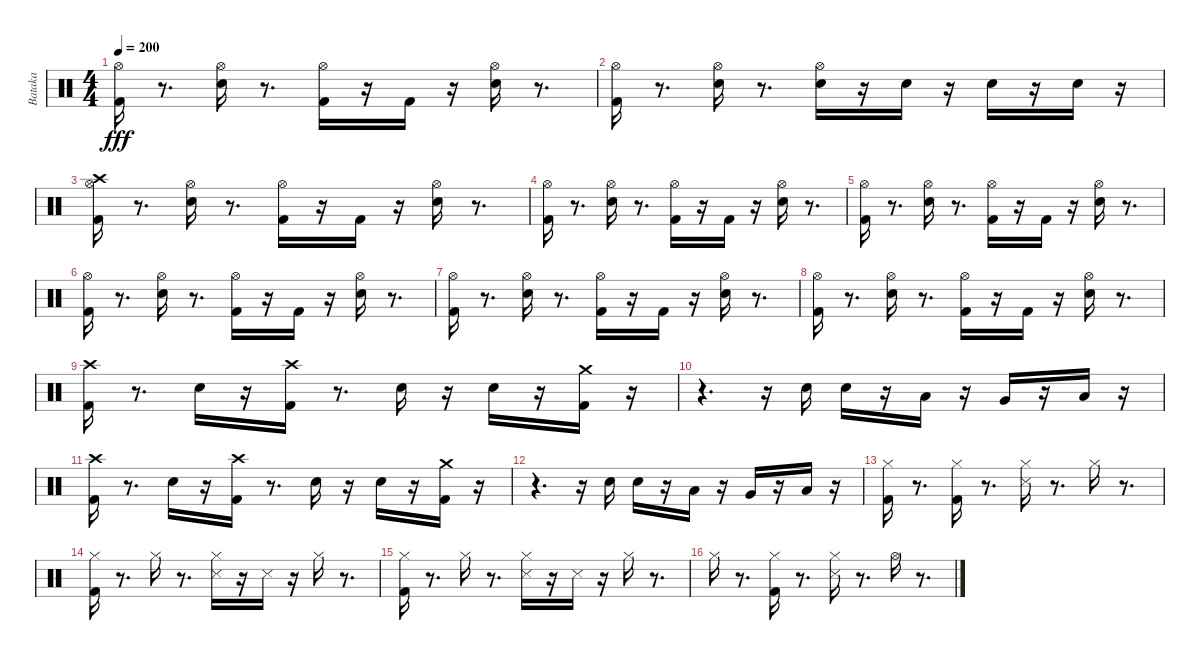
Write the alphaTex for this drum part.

\track ("Bataka" "Bataka") {instrument percussion}
\staff {score}
\articulation defaults
\ts (4 4)
\tempo 200
\clef neutral
\ks c
("Kick (hit) 2" "Hi-Hat (open)").16{dy fff} r.8{d} ("Electric Snare (hit)" "Hi-Hat (open)").16 r.8{d} ("Kick (hit) 2" "Hi-Hat (open)").16 r.16 "Kick (hit) 2".16 r.16 ("Electric Snare (hit)" "Hi-Hat (open)").16 r.8{d} |
("Kick (hit) 2" "Hi-Hat (open)").16 r.8{d} ("Electric Snare (hit)" "Hi-Hat (open)").16 r.8{d} ("Hi-Hat (open)" "Electric Snare (hit)").16 r.16 "Electric Snare (hit)".16 r.16 "Electric Snare (hit)".16 r.16 "Electric Snare (hit)".16 r.16 |
("Kick (hit) 2" "Hi-Hat (open)" "Crash high (hit)").16 r.8{d} ("Electric Snare (hit)" "Hi-Hat (open)").16 r.8{d} ("Kick (hit) 2" "Hi-Hat (open)").16 r.16 "Kick (hit) 2".16 r.16 ("Electric Snare (hit)" "Hi-Hat (open)").16 r.8{d} |
("Kick (hit) 2" "Hi-Hat (open)").16 r.8{d} ("Electric Snare (hit)" "Hi-Hat (open)").16 r.8{d} ("Kick (hit) 2" "Hi-Hat (open)").16 r.16 "Kick (hit) 2".16 r.16 ("Electric Snare (hit)" "Hi-Hat (open)").16 r.8{d} |
("Kick (hit) 2" "Hi-Hat (open)").16 r.8{d} ("Electric Snare (hit)" "Hi-Hat (open)").16 r.8{d} ("Kick (hit) 2" "Hi-Hat (open)").16 r.16 "Kick (hit) 2".16 r.16 ("Electric Snare (hit)" "Hi-Hat (open)").16 r.8{d} |
("Kick (hit) 2" "Hi-Hat (open)").16 r.8{d} ("Electric Snare (hit)" "Hi-Hat (open)").16 r.8{d} ("Kick (hit) 2" "Hi-Hat (open)").16 r.16 "Kick (hit) 2".16 r.16 ("Electric Snare (hit)" "Hi-Hat (open)").16 r.8{d} |
("Kick (hit) 2" "Hi-Hat (open)").16 r.8{d} ("Electric Snare (hit)" "Hi-Hat (open)").16 r.8{d} ("Kick (hit) 2" "Hi-Hat (open)").16 r.16 "Kick (hit) 2".16 r.16 ("Electric Snare (hit)" "Hi-Hat (open)").16 r.8{d} |
("Kick (hit) 2" "Hi-Hat (open)").16 r.8{d} ("Electric Snare (hit)" "Hi-Hat (open)").16 r.8{d} ("Kick (hit) 2" "Hi-Hat (open)").16 r.16 "Kick (hit) 2".16 r.16 ("Electric Snare (hit)" "Hi-Hat (open)").16 r.8{d} |
("Crash high (hit)" "Kick (hit) 2").16 r.8{d} "Electric Snare (hit)".16 r.16 ("Crash high (hit)" "Kick (hit) 2").16 r.8{d} "Electric Snare (hit)".16 r.16 "Electric Snare (hit)".16 r.16 ("Kick (hit) 2" "Crash medium (hit)").16 r.16 |
r.4{d} r.16 "Electric Snare (hit)".16 "Electric Snare (hit)".16 r.16 "Low Floor Tom (hit)".16 r.16 "Very Low Tom (hit)".16 r.16 "Low Tom (hit)".16 r.16 |
("Crash high (hit)" "Kick (hit) 2").16 r.8{d} "Electric Snare (hit)".16 r.16 ("Crash high (hit)" "Kick (hit) 2").16 r.8{d} "Electric Snare (hit)".16 r.16 "Electric Snare (hit)".16 r.16 ("Kick (hit) 2" "Crash medium (hit)").16 r.16 |
r.4{d} r.16 "Electric Snare (hit)".16 "Electric Snare (hit)".16 r.16 "Low Floor Tom (hit)".16 r.16 "Very Low Tom (hit)".16 r.16 "Low Tom (hit)".16 r.16 |
("Kick (hit) 2" "Hi-Hat (closed)").16 r.8{d} ("Kick (hit) 2" "Hi-Hat (closed)").16 r.8{d} ("Hi-Hat (closed)" "Snare (side stick) 3").16 r.8{d} "Hi-Hat (closed)".16 r.8{d} |
("Hi-Hat (closed)" "Kick (hit) 2").16 r.8{d} "Hi-Hat (closed)".16 r.8{d} ("Hi-Hat (closed)" "Snare (side stick) 3").16 r.16 "Snare (side stick) 3".16 r.16 "Hi-Hat (closed)".16 r.8{d} |
("Hi-Hat (closed)" "Kick (hit) 2").16 r.8{d} "Hi-Hat (closed)".16 r.8{d} ("Hi-Hat (closed)" "Snare (side stick) 3").16 r.16 "Snare (side stick) 3".16 r.16 "Hi-Hat (closed)".16 r.8{d} |
"Hi-Hat (closed)".16 r.8{d} ("Hi-Hat (closed)" "Kick (hit) 2").16 r.8{d} ("Snare (side stick) 3" "Hi-Hat (closed)").16 r.8{d} "Hi-Hat (open)".16 r.8{d}
